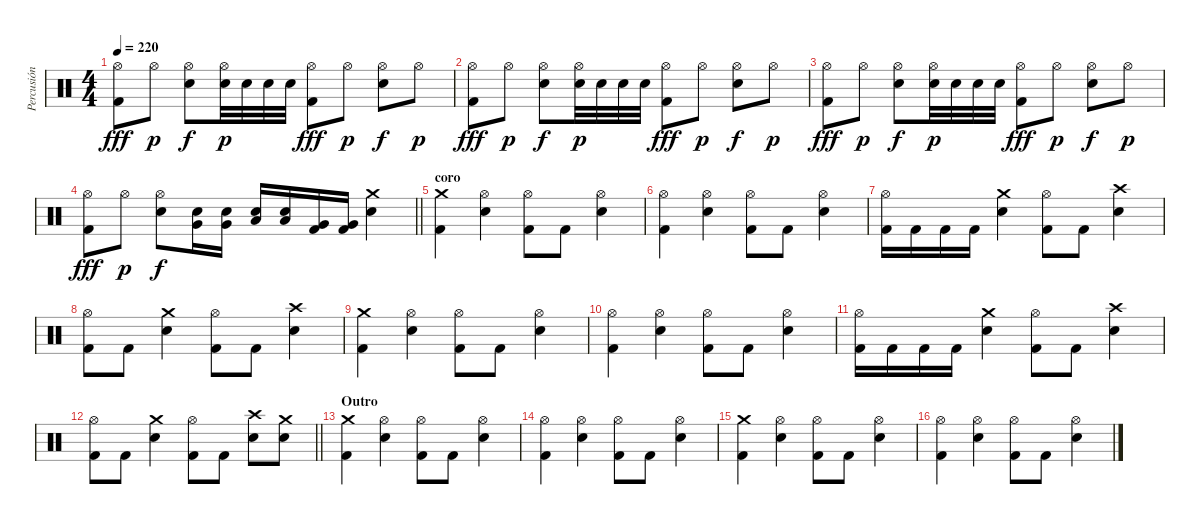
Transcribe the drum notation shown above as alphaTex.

\track ("Percusión" "Percusión") {instrument percussion}
\staff {score}
\articulation defaults
\ts (4 4)
\tempo 220
\clef neutral
\ks c
("Hi-Hat (open)" "Kick (hit) 2").8{dy fff} "Hi-Hat (open)".8{dy p} ("Hi-Hat (open)" "Snare (hit) 2").8{dy f} ("Hi-Hat (open)" "Snare (hit) 2").32{dy p} "Snare (hit) 2".32 "Snare (hit) 2".32 "Snare (hit) 2".32 ("Hi-Hat (open)" "Kick (hit) 2").8{dy fff} "Hi-Hat (open)".8{dy p} ("Hi-Hat (open)" "Snare (hit) 2").8{dy f} "Hi-Hat (open)".8{dy p} |
("Hi-Hat (open)" "Kick (hit) 2").8{dy fff} "Hi-Hat (open)".8{dy p} ("Hi-Hat (open)" "Snare (hit) 2").8{dy f} ("Hi-Hat (open)" "Snare (hit) 2").32{dy p} "Snare (hit) 2".32 "Snare (hit) 2".32 "Snare (hit) 2".32 ("Hi-Hat (open)" "Kick (hit) 2").8{dy fff} "Hi-Hat (open)".8{dy p} ("Hi-Hat (open)" "Snare (hit) 2").8{dy f} "Hi-Hat (open)".8{dy p} |
("Hi-Hat (open)" "Kick (hit) 2").8{dy fff} "Hi-Hat (open)".8{dy p} ("Hi-Hat (open)" "Snare (hit) 2").8{dy f} ("Hi-Hat (open)" "Snare (hit) 2").32{dy p} "Snare (hit) 2".32 "Snare (hit) 2".32 "Snare (hit) 2".32 ("Hi-Hat (open)" "Kick (hit) 2").8{dy fff} "Hi-Hat (open)".8{dy p} ("Hi-Hat (open)" "Snare (hit) 2").8{dy f} "Hi-Hat (open)".8{dy p} |
\barLineRight lightlight
("Hi-Hat (open)" "Kick (hit) 2").8{dy fff} "Hi-Hat (open)".8{dy p} ("Hi-Hat (open)" "Snare (hit) 2").8{dy f} ("Snare (hit) 2" "Very Low Tom (hit)").16 ("Snare (hit) 2" "Very Low Tom (hit)").16 ("Low Floor Tom (hit)" "Snare (hit) 2").16 ("Low Floor Tom (hit)" "Snare (hit) 2").16 ("Very Low Tom (hit)" "Kick (hit) 2").16 ("Very Low Tom (hit)" "Kick (hit) 2").16 ("Crash medium (hit)" "Snare (hit) 2").4 |
\section ("" "coro")
("Crash medium (hit)" "Kick (hit) 2").4 ("Hi-Hat (open)" "Snare (hit) 2").4 ("Hi-Hat (open)" "Kick (hit) 2").8 "Kick (hit) 2".8 ("Hi-Hat (open)" "Snare (hit) 2").4 |
("Hi-Hat (open)" "Kick (hit) 2").4 ("Hi-Hat (open)" "Snare (hit) 2").4 ("Hi-Hat (open)" "Kick (hit) 2").8 "Kick (hit) 2".8 ("Hi-Hat (open)" "Snare (hit) 2").4 |
("Hi-Hat (open)" "Kick (hit) 2").16 "Kick (hit) 2".16 "Kick (hit) 2".16 "Kick (hit) 2".16 ("Crash medium (hit)" "Snare (hit) 2").4 ("Hi-Hat (open)" "Kick (hit) 2").8 "Kick (hit) 2".8 ("Crash high (hit)" "Snare (hit) 2").4 |
("Hi-Hat (open)" "Kick (hit) 2").8 "Kick (hit) 2".8 ("Crash medium (hit)" "Snare (hit) 2").4 ("Hi-Hat (open)" "Kick (hit) 2").8 "Kick (hit) 2".8 ("Crash high (hit)" "Snare (hit) 2").4 |
("Crash medium (hit)" "Kick (hit) 2").4 ("Hi-Hat (open)" "Snare (hit) 2").4 ("Hi-Hat (open)" "Kick (hit) 2").8 "Kick (hit) 2".8 ("Hi-Hat (open)" "Snare (hit) 2").4 |
("Hi-Hat (open)" "Kick (hit) 2").4 ("Hi-Hat (open)" "Snare (hit) 2").4 ("Hi-Hat (open)" "Kick (hit) 2").8 "Kick (hit) 2".8 ("Hi-Hat (open)" "Snare (hit) 2").4 |
("Hi-Hat (open)" "Kick (hit) 2").16 "Kick (hit) 2".16 "Kick (hit) 2".16 "Kick (hit) 2".16 ("Crash medium (hit)" "Snare (hit) 2").4 ("Hi-Hat (open)" "Kick (hit) 2").8 "Kick (hit) 2".8 ("Crash high (hit)" "Snare (hit) 2").4 |
\barLineRight lightlight
("Hi-Hat (open)" "Kick (hit) 2").8 "Kick (hit) 2".8 ("Crash medium (hit)" "Snare (hit) 2").4 ("Hi-Hat (open)" "Kick (hit) 2").8 "Kick (hit) 2".8 ("Crash high (hit)" "Snare (hit) 2").8 ("Crash medium (hit)" "Snare (hit) 2").8 |
\section ("" "Outro")
("Crash medium (hit)" "Kick (hit) 2").4 ("Hi-Hat (open)" "Snare (hit) 2").4 ("Hi-Hat (open)" "Kick (hit) 2").8 "Kick (hit) 2".8 ("Hi-Hat (open)" "Snare (hit) 2").4 |
("Hi-Hat (open)" "Kick (hit) 2").4 ("Hi-Hat (open)" "Snare (hit) 2").4 ("Hi-Hat (open)" "Kick (hit) 2").8 "Kick (hit) 2".8 ("Hi-Hat (open)" "Snare (hit) 2").4 |
("Crash medium (hit)" "Kick (hit) 2").4 ("Hi-Hat (open)" "Snare (hit) 2").4 ("Hi-Hat (open)" "Kick (hit) 2").8 "Kick (hit) 2".8 ("Hi-Hat (open)" "Snare (hit) 2").4 |
("Hi-Hat (open)" "Kick (hit) 2").4 ("Hi-Hat (open)" "Snare (hit) 2").4 ("Hi-Hat (open)" "Kick (hit) 2").8 "Kick (hit) 2".8 ("Hi-Hat (open)" "Snare (hit) 2").4
